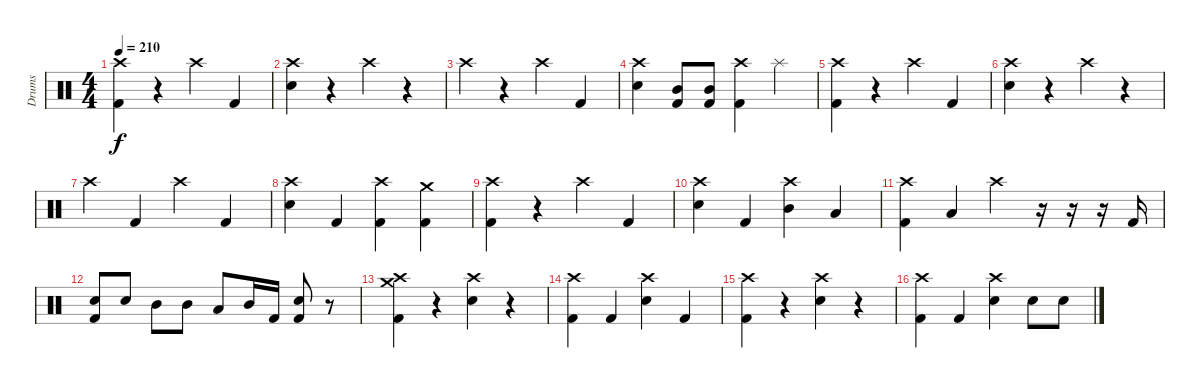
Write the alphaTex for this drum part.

\track ("Drums" "Drums") {instrument percussion}
\staff {score}
\articulation defaults
\ts (4 4)
\tempo 210
\clef neutral
\ks c
("Crash high (hit)" "Kick (hit) 2").4{dy f} r.4 "Crash high (hit)".4 "Kick (hit) 2".4 |
("Crash high (hit)" "Electric Snare (hit)").4 r.4 "Crash high (hit)".4 r.4 |
"Crash high (hit)".4 r.4 "Crash high (hit)".4 "Kick (hit) 2".4 |
("Crash high (hit)" "Electric Snare (hit)").4 ("Mid Tom (hit)" "Kick (hit) 2").8 ("Mid Tom (hit)" "Kick (hit) 2").8 ("Crash high (hit)" "Kick (hit) 2").4 "Splash (hit)".4 |
("Crash high (hit)" "Kick (hit) 2").4 r.4 "Crash high (hit)".4 "Kick (hit) 2".4 |
("Crash high (hit)" "Electric Snare (hit)").4 r.4 "Crash high (hit)".4 r.4 |
"Crash high (hit)".4 "Kick (hit) 2".4 "Crash high (hit)".4 "Kick (hit) 2".4 |
("Crash high (hit)" "Electric Snare (hit)").4 "Kick (hit) 2".4 ("Crash high (hit)" "Kick (hit) 2").4 ("Crash medium (hit)" "Kick (hit) 2").4 |
("Crash high (hit)" "Kick (hit) 2").4 r.4 "Crash high (hit)".4 "Kick (hit) 2".4 |
("Crash high (hit)" "Electric Snare (hit)").4 "Kick (hit) 2".4 ("Crash high (hit)" "Mid Tom (hit)").4 "Low Tom (hit)".4 |
("Crash high (hit)" "Kick (hit) 2").4 "Low Tom (hit)".4 "Crash high (hit)".4 r.16 r.16 r.16 "Kick (hit) 2".16 |
("Electric Snare (hit)" "Kick (hit) 2").8 "Electric Snare (hit)".8 "Mid Tom (hit)".8 "Mid Tom (hit)".8 "Low Tom (hit)".8 "Mid Tom (hit)".16 "Kick (hit) 2".16 ("Electric Snare (hit)" "Kick (hit) 2").8 r.8 |
("Crash high (hit)" "Crash medium (hit)" "Kick (hit) 2").4 r.4 ("Crash high (hit)" "Electric Snare (hit)").4 r.4 |
("Crash high (hit)" "Kick (hit) 2").4 "Kick (hit) 2".4 ("Crash high (hit)" "Electric Snare (hit)").4 "Kick (hit) 2".4 |
("Crash high (hit)" "Kick (hit) 2").4 r.4 ("Crash high (hit)" "Electric Snare (hit)").4 r.4 |
("Crash high (hit)" "Kick (hit) 2").4 "Kick (hit) 2".4 ("Crash high (hit)" "Electric Snare (hit)").4 "Electric Snare (hit)".8 "Electric Snare (hit)".8
